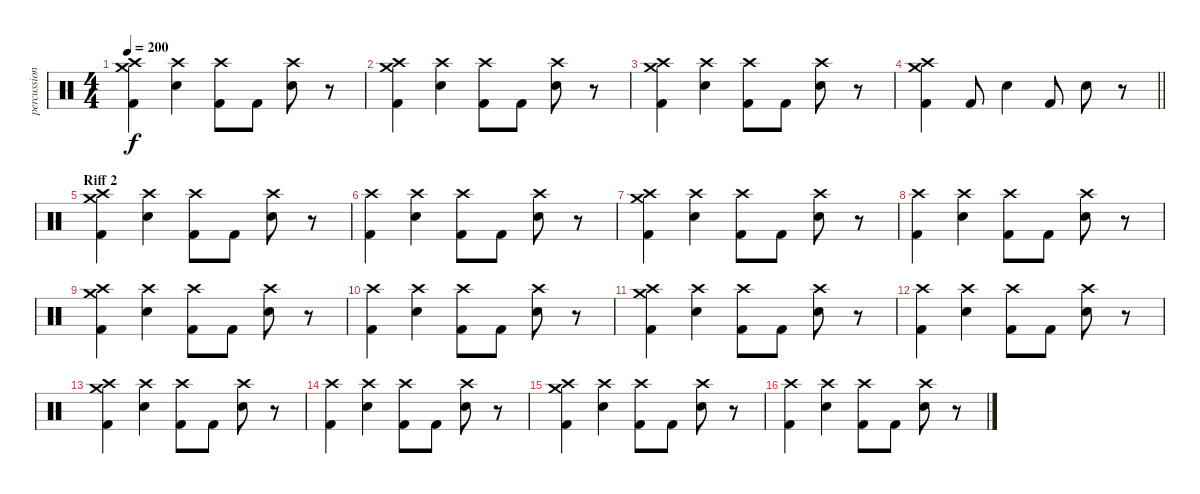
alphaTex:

\track ("percussion" "percussion") {instrument percussion}
\staff {score}
\articulation defaults
\ts (4 4)
\tempo 200
\clef neutral
\ks c
("Kick (hit) 2" "Crash medium (hit)" "Crash high (hit)").4{dy f} ("Electric Snare (hit)" "Crash high (hit)").4 ("Kick (hit) 2" "Crash high (hit)").8 "Kick (hit) 2".8 ("Electric Snare (hit)" "Crash high (hit)").8 r.8 |
("Kick (hit) 2" "Crash medium (hit)" "Crash high (hit)").4 ("Electric Snare (hit)" "Crash high (hit)").4 ("Kick (hit) 2" "Crash high (hit)").8 "Kick (hit) 2".8 ("Electric Snare (hit)" "Crash high (hit)").8 r.8 |
("Kick (hit) 2" "Crash medium (hit)" "Crash high (hit)").4 ("Electric Snare (hit)" "Crash high (hit)").4 ("Kick (hit) 2" "Crash high (hit)").8 "Kick (hit) 2".8 ("Electric Snare (hit)" "Crash high (hit)").8 r.8 |
\barLineRight lightlight
("Kick (hit) 2" "Crash medium (hit)" "Crash high (hit)").4 "Kick (hit) 2".8 "Electric Snare (hit)".4 "Kick (hit) 2".8 "Electric Snare (hit)".8 r.8 |
\section ("" "Riff 2")
("Kick (hit) 2" "Crash medium (hit)" "Crash high (hit)").4 ("Electric Snare (hit)" "Crash high (hit)").4 ("Kick (hit) 2" "Crash high (hit)").8 "Kick (hit) 2".8 ("Electric Snare (hit)" "Crash high (hit)").8 r.8 |
("Kick (hit) 2" "Crash high (hit)").4 ("Electric Snare (hit)" "Crash high (hit)").4 ("Kick (hit) 2" "Crash high (hit)").8 "Kick (hit) 2".8 ("Electric Snare (hit)" "Crash high (hit)").8 r.8 |
("Kick (hit) 2" "Crash medium (hit)" "Crash high (hit)").4 ("Electric Snare (hit)" "Crash high (hit)").4 ("Kick (hit) 2" "Crash high (hit)").8 "Kick (hit) 2".8 ("Electric Snare (hit)" "Crash high (hit)").8 r.8 |
("Kick (hit) 2" "Crash high (hit)").4 ("Electric Snare (hit)" "Crash high (hit)").4 ("Kick (hit) 2" "Crash high (hit)").8 "Kick (hit) 2".8 ("Electric Snare (hit)" "Crash high (hit)").8 r.8 |
("Kick (hit) 2" "Crash medium (hit)" "Crash high (hit)").4 ("Electric Snare (hit)" "Crash high (hit)").4 ("Kick (hit) 2" "Crash high (hit)").8 "Kick (hit) 2".8 ("Electric Snare (hit)" "Crash high (hit)").8 r.8 |
("Kick (hit) 2" "Crash high (hit)").4 ("Electric Snare (hit)" "Crash high (hit)").4 ("Kick (hit) 2" "Crash high (hit)").8 "Kick (hit) 2".8 ("Electric Snare (hit)" "Crash high (hit)").8 r.8 |
("Kick (hit) 2" "Crash medium (hit)" "Crash high (hit)").4 ("Electric Snare (hit)" "Crash high (hit)").4 ("Kick (hit) 2" "Crash high (hit)").8 "Kick (hit) 2".8 ("Electric Snare (hit)" "Crash high (hit)").8 r.8 |
("Kick (hit) 2" "Crash high (hit)").4 ("Electric Snare (hit)" "Crash high (hit)").4 ("Kick (hit) 2" "Crash high (hit)").8 "Kick (hit) 2".8 ("Electric Snare (hit)" "Crash high (hit)").8 r.8 |
("Kick (hit) 2" "Crash medium (hit)" "Crash high (hit)").4 ("Electric Snare (hit)" "Crash high (hit)").4 ("Kick (hit) 2" "Crash high (hit)").8 "Kick (hit) 2".8 ("Electric Snare (hit)" "Crash high (hit)").8 r.8 |
("Kick (hit) 2" "Crash high (hit)").4 ("Electric Snare (hit)" "Crash high (hit)").4 ("Kick (hit) 2" "Crash high (hit)").8 "Kick (hit) 2".8 ("Electric Snare (hit)" "Crash high (hit)").8 r.8 |
("Kick (hit) 2" "Crash medium (hit)" "Crash high (hit)").4 ("Electric Snare (hit)" "Crash high (hit)").4 ("Kick (hit) 2" "Crash high (hit)").8 "Kick (hit) 2".8 ("Electric Snare (hit)" "Crash high (hit)").8 r.8 |
("Kick (hit) 2" "Crash high (hit)").4 ("Electric Snare (hit)" "Crash high (hit)").4 ("Kick (hit) 2" "Crash high (hit)").8 "Kick (hit) 2".8 ("Electric Snare (hit)" "Crash high (hit)").8 r.8
